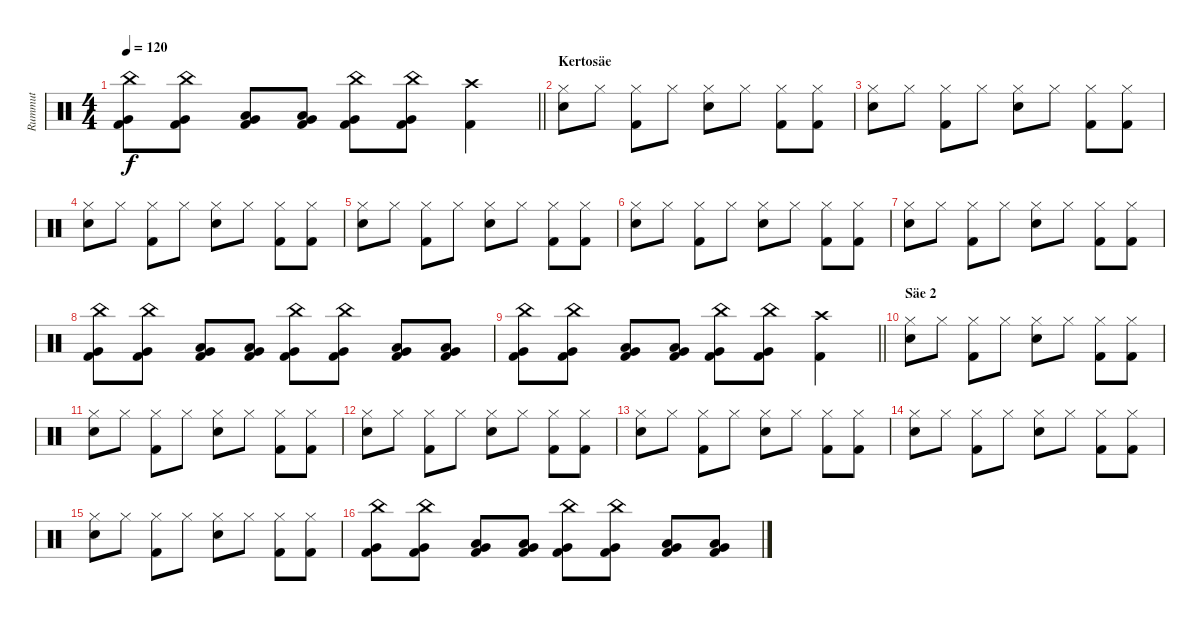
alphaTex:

\track ("Rummut" "Rummut") {instrument percussion}
\staff {score}
\articulation defaults
\ts (4 4)
\tempo 120
\clef neutral
\barLineRight lightlight
\ks c
("China (hit)" "Very Low Tom (hit)" "Kick (hit) 2").8{dy f} ("China (hit)" "Very Low Tom (hit)" "Kick (hit) 2").8 ("Low Floor Tom (hit)" "Very Low Tom (hit)" "Kick (hit) 2").8 ("Low Floor Tom (hit)" "Very Low Tom (hit)" "Kick (hit) 2").8 ("China (hit)" "Very Low Tom (hit)" "Kick (hit) 2").8 ("China (hit)" "Very Low Tom (hit)" "Kick (hit) 2").8 ("Crash high (hit)" "Kick (hit) 2").4 |
\section ("" "Kertosäe")
("Hi-Hat (closed)" "Electric Snare (hit)").8 "Hi-Hat (closed)".8 ("Hi-Hat (closed)" "Kick (hit) 2").8 "Hi-Hat (closed)".8 ("Hi-Hat (closed)" "Electric Snare (hit)").8 "Hi-Hat (closed)".8 ("Hi-Hat (closed)" "Kick (hit) 2").8 ("Hi-Hat (closed)" "Kick (hit) 2").8 |
("Hi-Hat (closed)" "Electric Snare (hit)").8 "Hi-Hat (closed)".8 ("Hi-Hat (closed)" "Kick (hit) 2").8 "Hi-Hat (closed)".8 ("Hi-Hat (closed)" "Electric Snare (hit)").8 "Hi-Hat (closed)".8 ("Hi-Hat (closed)" "Kick (hit) 2").8 ("Hi-Hat (closed)" "Kick (hit) 2").8 |
("Hi-Hat (closed)" "Electric Snare (hit)").8 "Hi-Hat (closed)".8 ("Hi-Hat (closed)" "Kick (hit) 2").8 "Hi-Hat (closed)".8 ("Hi-Hat (closed)" "Electric Snare (hit)").8 "Hi-Hat (closed)".8 ("Hi-Hat (closed)" "Kick (hit) 2").8 ("Hi-Hat (closed)" "Kick (hit) 2").8 |
("Hi-Hat (closed)" "Electric Snare (hit)").8 "Hi-Hat (closed)".8 ("Hi-Hat (closed)" "Kick (hit) 2").8 "Hi-Hat (closed)".8 ("Hi-Hat (closed)" "Electric Snare (hit)").8 "Hi-Hat (closed)".8 ("Hi-Hat (closed)" "Kick (hit) 2").8 ("Hi-Hat (closed)" "Kick (hit) 2").8 |
("Hi-Hat (closed)" "Electric Snare (hit)").8 "Hi-Hat (closed)".8 ("Hi-Hat (closed)" "Kick (hit) 2").8 "Hi-Hat (closed)".8 ("Hi-Hat (closed)" "Electric Snare (hit)").8 "Hi-Hat (closed)".8 ("Hi-Hat (closed)" "Kick (hit) 2").8 ("Hi-Hat (closed)" "Kick (hit) 2").8 |
("Hi-Hat (closed)" "Electric Snare (hit)").8 "Hi-Hat (closed)".8 ("Hi-Hat (closed)" "Kick (hit) 2").8 "Hi-Hat (closed)".8 ("Hi-Hat (closed)" "Electric Snare (hit)").8 "Hi-Hat (closed)".8 ("Hi-Hat (closed)" "Kick (hit) 2").8 ("Hi-Hat (closed)" "Kick (hit) 2").8 |
("China (hit)" "Very Low Tom (hit)" "Kick (hit) 2").8 ("China (hit)" "Very Low Tom (hit)" "Kick (hit) 2").8 ("Low Floor Tom (hit)" "Very Low Tom (hit)" "Kick (hit) 2").8 ("Low Floor Tom (hit)" "Very Low Tom (hit)" "Kick (hit) 2").8 ("China (hit)" "Very Low Tom (hit)" "Kick (hit) 2").8 ("China (hit)" "Very Low Tom (hit)" "Kick (hit) 2").8 ("Low Floor Tom (hit)" "Very Low Tom (hit)" "Kick (hit) 2").8 ("Low Floor Tom (hit)" "Very Low Tom (hit)" "Kick (hit) 2").8 |
\barLineRight lightlight
("China (hit)" "Very Low Tom (hit)" "Kick (hit) 2").8 ("China (hit)" "Very Low Tom (hit)" "Kick (hit) 2").8 ("Low Floor Tom (hit)" "Very Low Tom (hit)" "Kick (hit) 2").8 ("Low Floor Tom (hit)" "Very Low Tom (hit)" "Kick (hit) 2").8 ("China (hit)" "Very Low Tom (hit)" "Kick (hit) 2").8 ("China (hit)" "Very Low Tom (hit)" "Kick (hit) 2").8 ("Crash high (hit)" "Kick (hit) 2").4 |
\section ("" "Säe 2")
("Hi-Hat (closed)" "Electric Snare (hit)").8 "Hi-Hat (closed)".8 ("Hi-Hat (closed)" "Kick (hit) 2").8 "Hi-Hat (closed)".8 ("Hi-Hat (closed)" "Electric Snare (hit)").8 "Hi-Hat (closed)".8 ("Hi-Hat (closed)" "Kick (hit) 2").8 ("Hi-Hat (closed)" "Kick (hit) 2").8 |
("Hi-Hat (closed)" "Electric Snare (hit)").8 "Hi-Hat (closed)".8 ("Hi-Hat (closed)" "Kick (hit) 2").8 "Hi-Hat (closed)".8 ("Hi-Hat (closed)" "Electric Snare (hit)").8 "Hi-Hat (closed)".8 ("Hi-Hat (closed)" "Kick (hit) 2").8 ("Hi-Hat (closed)" "Kick (hit) 2").8 |
("Hi-Hat (closed)" "Electric Snare (hit)").8 "Hi-Hat (closed)".8 ("Hi-Hat (closed)" "Kick (hit) 2").8 "Hi-Hat (closed)".8 ("Hi-Hat (closed)" "Electric Snare (hit)").8 "Hi-Hat (closed)".8 ("Hi-Hat (closed)" "Kick (hit) 2").8 ("Hi-Hat (closed)" "Kick (hit) 2").8 |
("Hi-Hat (closed)" "Electric Snare (hit)").8 "Hi-Hat (closed)".8 ("Hi-Hat (closed)" "Kick (hit) 2").8 "Hi-Hat (closed)".8 ("Hi-Hat (closed)" "Electric Snare (hit)").8 "Hi-Hat (closed)".8 ("Hi-Hat (closed)" "Kick (hit) 2").8 ("Hi-Hat (closed)" "Kick (hit) 2").8 |
("Hi-Hat (closed)" "Electric Snare (hit)").8 "Hi-Hat (closed)".8 ("Hi-Hat (closed)" "Kick (hit) 2").8 "Hi-Hat (closed)".8 ("Hi-Hat (closed)" "Electric Snare (hit)").8 "Hi-Hat (closed)".8 ("Hi-Hat (closed)" "Kick (hit) 2").8 ("Hi-Hat (closed)" "Kick (hit) 2").8 |
("Hi-Hat (closed)" "Electric Snare (hit)").8 "Hi-Hat (closed)".8 ("Hi-Hat (closed)" "Kick (hit) 2").8 "Hi-Hat (closed)".8 ("Hi-Hat (closed)" "Electric Snare (hit)").8 "Hi-Hat (closed)".8 ("Hi-Hat (closed)" "Kick (hit) 2").8 ("Hi-Hat (closed)" "Kick (hit) 2").8 |
("China (hit)" "Very Low Tom (hit)" "Kick (hit) 2").8 ("China (hit)" "Very Low Tom (hit)" "Kick (hit) 2").8 ("Low Floor Tom (hit)" "Very Low Tom (hit)" "Kick (hit) 2").8 ("Low Floor Tom (hit)" "Very Low Tom (hit)" "Kick (hit) 2").8 ("China (hit)" "Very Low Tom (hit)" "Kick (hit) 2").8 ("China (hit)" "Very Low Tom (hit)" "Kick (hit) 2").8 ("Low Floor Tom (hit)" "Very Low Tom (hit)" "Kick (hit) 2").8 ("Low Floor Tom (hit)" "Very Low Tom (hit)" "Kick (hit) 2").8
